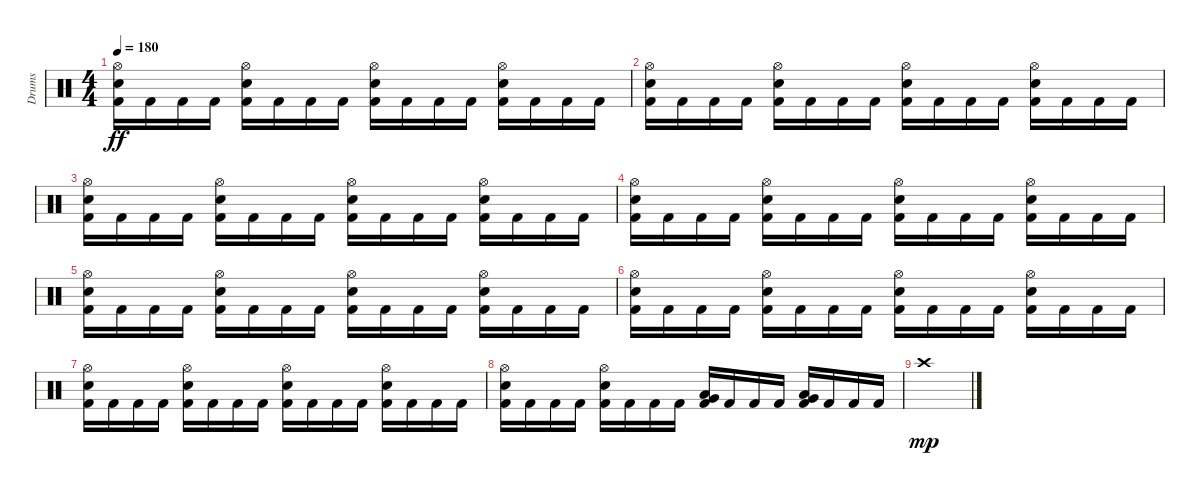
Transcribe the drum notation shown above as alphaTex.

\track ("Drums" "Drums") {instrument percussion}
\staff {score}
\articulation defaults
\ts (4 4)
\tempo 180
\clef neutral
\ks c
("Hi-Hat (open)" "Snare (hit) 2" "Kick (hit) 2").16{dy ff} "Kick (hit) 2".16 "Kick (hit) 2".16 "Kick (hit) 2".16 ("Hi-Hat (open)" "Snare (hit) 2" "Kick (hit) 2").16 "Kick (hit) 2".16 "Kick (hit) 2".16 "Kick (hit) 2".16 ("Hi-Hat (open)" "Snare (hit) 2" "Kick (hit) 2").16 "Kick (hit) 2".16 "Kick (hit) 2".16 "Kick (hit) 2".16 ("Hi-Hat (open)" "Snare (hit) 2" "Kick (hit) 2").16 "Kick (hit) 2".16 "Kick (hit) 2".16 "Kick (hit) 2".16 |
("Hi-Hat (open)" "Snare (hit) 2" "Kick (hit) 2").16 "Kick (hit) 2".16 "Kick (hit) 2".16 "Kick (hit) 2".16 ("Hi-Hat (open)" "Snare (hit) 2" "Kick (hit) 2").16 "Kick (hit) 2".16 "Kick (hit) 2".16 "Kick (hit) 2".16 ("Hi-Hat (open)" "Snare (hit) 2" "Kick (hit) 2").16 "Kick (hit) 2".16 "Kick (hit) 2".16 "Kick (hit) 2".16 ("Hi-Hat (open)" "Snare (hit) 2" "Kick (hit) 2").16 "Kick (hit) 2".16 "Kick (hit) 2".16 "Kick (hit) 2".16 |
("Hi-Hat (open)" "Snare (hit) 2" "Kick (hit) 2").16 "Kick (hit) 2".16 "Kick (hit) 2".16 "Kick (hit) 2".16 ("Hi-Hat (open)" "Snare (hit) 2" "Kick (hit) 2").16 "Kick (hit) 2".16 "Kick (hit) 2".16 "Kick (hit) 2".16 ("Hi-Hat (open)" "Snare (hit) 2" "Kick (hit) 2").16 "Kick (hit) 2".16 "Kick (hit) 2".16 "Kick (hit) 2".16 ("Hi-Hat (open)" "Snare (hit) 2" "Kick (hit) 2").16 "Kick (hit) 2".16 "Kick (hit) 2".16 "Kick (hit) 2".16 |
("Hi-Hat (open)" "Snare (hit) 2" "Kick (hit) 2").16 "Kick (hit) 2".16 "Kick (hit) 2".16 "Kick (hit) 2".16 ("Hi-Hat (open)" "Snare (hit) 2" "Kick (hit) 2").16 "Kick (hit) 2".16 "Kick (hit) 2".16 "Kick (hit) 2".16 ("Hi-Hat (open)" "Snare (hit) 2" "Kick (hit) 2").16 "Kick (hit) 2".16 "Kick (hit) 2".16 "Kick (hit) 2".16 ("Hi-Hat (open)" "Snare (hit) 2" "Kick (hit) 2").16 "Kick (hit) 2".16 "Kick (hit) 2".16 "Kick (hit) 2".16 |
("Hi-Hat (open)" "Snare (hit) 2" "Kick (hit) 2").16 "Kick (hit) 2".16 "Kick (hit) 2".16 "Kick (hit) 2".16 ("Hi-Hat (open)" "Snare (hit) 2" "Kick (hit) 2").16 "Kick (hit) 2".16 "Kick (hit) 2".16 "Kick (hit) 2".16 ("Hi-Hat (open)" "Snare (hit) 2" "Kick (hit) 2").16 "Kick (hit) 2".16 "Kick (hit) 2".16 "Kick (hit) 2".16 ("Hi-Hat (open)" "Snare (hit) 2" "Kick (hit) 2").16 "Kick (hit) 2".16 "Kick (hit) 2".16 "Kick (hit) 2".16 |
("Hi-Hat (open)" "Snare (hit) 2" "Kick (hit) 2").16 "Kick (hit) 2".16 "Kick (hit) 2".16 "Kick (hit) 2".16 ("Hi-Hat (open)" "Snare (hit) 2" "Kick (hit) 2").16 "Kick (hit) 2".16 "Kick (hit) 2".16 "Kick (hit) 2".16 ("Hi-Hat (open)" "Snare (hit) 2" "Kick (hit) 2").16 "Kick (hit) 2".16 "Kick (hit) 2".16 "Kick (hit) 2".16 ("Hi-Hat (open)" "Snare (hit) 2" "Kick (hit) 2").16 "Kick (hit) 2".16 "Kick (hit) 2".16 "Kick (hit) 2".16 |
("Hi-Hat (open)" "Snare (hit) 2" "Kick (hit) 2").16 "Kick (hit) 2".16 "Kick (hit) 2".16 "Kick (hit) 2".16 ("Hi-Hat (open)" "Snare (hit) 2" "Kick (hit) 2").16 "Kick (hit) 2".16 "Kick (hit) 2".16 "Kick (hit) 2".16 ("Hi-Hat (open)" "Snare (hit) 2" "Kick (hit) 2").16 "Kick (hit) 2".16 "Kick (hit) 2".16 "Kick (hit) 2".16 ("Hi-Hat (open)" "Snare (hit) 2" "Kick (hit) 2").16 "Kick (hit) 2".16 "Kick (hit) 2".16 "Kick (hit) 2".16 |
("Hi-Hat (open)" "Snare (hit) 2" "Kick (hit) 2").16 "Kick (hit) 2".16 "Kick (hit) 2".16 "Kick (hit) 2".16 ("Hi-Hat (open)" "Snare (hit) 2" "Kick (hit) 2").16 "Kick (hit) 2".16 "Kick (hit) 2".16 "Kick (hit) 2".16 ("Low Tom (hit)" "Very Low Tom (hit)" "Kick (hit) 2").16 "Kick (hit) 2".16 "Kick (hit) 2".16 "Kick (hit) 2".16 ("Very Low Tom (hit)" "Low Floor Tom (hit)" "Kick (hit) 2").16 "Kick (hit) 2".16 "Kick (hit) 2".16 "Kick (hit) 2".16 |
"Crash high (hit)".1{dy mp}
